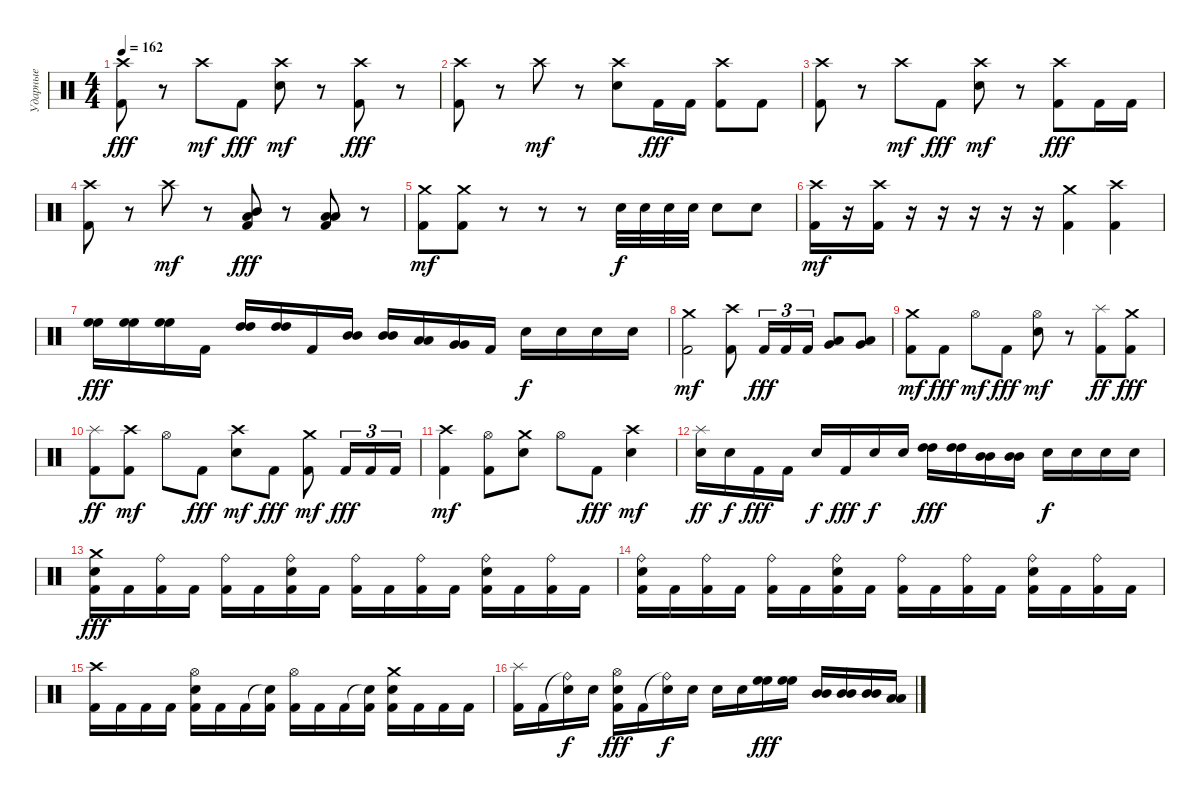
\track ("Ударные" "Ударные") {instrument percussion}
\staff {score}
\articulation defaults
\ts (4 4)
\tempo 162
\clef neutral
\ks c
("Crash high (hit)" "Kick (hit) 2").8{dy fff} r.8 "Crash high (hit)".8{dy mf} "Kick (hit) 2".8{dy fff} ("Crash high (hit)" "Electric Snare (hit)").8{dy mf} r.8 ("Crash high (hit)" "Kick (hit) 2").8{dy fff} r.8 |
("Crash high (hit)" "Kick (hit) 2").8 r.8 "Crash high (hit)".8{dy mf} r.8 ("Crash high (hit)" "Electric Snare (hit)").8 "Kick (hit) 2".16{dy fff} "Kick (hit) 2".16 ("Crash high (hit)" "Kick (hit) 2").8 "Kick (hit) 2".8 |
("Crash high (hit)" "Kick (hit) 2").8 r.8 "Crash high (hit)".8{dy mf} "Kick (hit) 2".8{dy fff} ("Crash high (hit)" "Electric Snare (hit)").8{dy mf} r.8 ("Crash high (hit)" "Kick (hit) 2").8{dy fff} "Kick (hit) 2".16 "Kick (hit) 2".16 |
("Crash high (hit)" "Kick (hit) 2").8 r.8 "Crash high (hit)".8{dy mf} r.8 ("Low Tom (hit)" "Mid Tom (hit)" "Kick (hit) 2").8{dy fff} r.8 ("Low Tom (hit)" "Low Tom (hit)" "Kick (hit) 2").8 r.8 |
("Kick (hit) 2" "Crash medium (hit)").8{dy mf} ("Kick (hit) 2" "Crash medium (hit)").8 r.8 r.8 r.8 "Electric Snare (hit)".32{dy f} "Electric Snare (hit)".32 "Electric Snare (hit)".32 "Electric Snare (hit)".32 "Electric Snare (hit)".8 "Electric Snare (hit)".8 |
("Kick (hit) 2" "Crash high (hit)").16{dy mf} r.16 ("Kick (hit) 2" "Crash high (hit)").16 r.16 r.16 r.16 r.16 r.16 ("Kick (hit) 2" "Crash medium (hit)").4 ("Kick (hit) 2" "Crash high (hit)").4 |
("High Floor Tom (hit)" "High Floor Tom (hit)").16{dy fff} ("High Floor Tom (hit)" "High Floor Tom (hit)").16 ("High Floor Tom (hit)" "High Floor Tom (hit)").16 "Kick (hit) 2".16 ("High Tom (hit)" "High Tom (hit)").16 ("High Tom (hit)" "High Tom (hit)").16 "Kick (hit) 2".16 ("Mid Tom (hit)" "Mid Tom (hit)").16 ("Mid Tom (hit)" "Mid Tom (hit)").16 ("Low Tom (hit)" "Low Tom (hit)").16 ("Very Low Tom (hit)" "Very Low Tom (hit)").16 "Kick (hit) 2".16 "Electric Snare (hit)".16{dy f} "Electric Snare (hit)".16 "Electric Snare (hit)".16 "Electric Snare (hit)".16 |
("Kick (hit) 2" "Crash medium (hit)").2{dy mf} ("Kick (hit) 2" "Crash high (hit)").8 "Kick (hit) 2".16{tu (3 2) dy fff} "Kick (hit) 2".16{tu (3 2)} "Kick (hit) 2".16{tu (3 2)} ("Very Low Tom (hit)" "Low Floor Tom (hit)").8 ("Very Low Tom (hit)" "Low Floor Tom (hit)").8 |
("Kick (hit) 2" "Crash medium (hit)").8{dy mf} "Kick (hit) 2".8{dy fff} "Hi-Hat (open)".8{dy mf} "Kick (hit) 2".8{dy fff} ("Electric Snare (hit)" "Hi-Hat (open)").8{dy mf} r.8 ("Kick (hit) 2" "Splash (hit)").8{dy ff} ("Kick (hit) 2" "Crash medium (hit)").8{dy fff} |
("Kick (hit) 2" "Splash (hit)").8{dy ff} ("Kick (hit) 2" "Crash high (hit)").8{dy mf} "Hi-Hat (open)".8 "Kick (hit) 2".8{dy fff} ("Electric Snare (hit)" "Crash high (hit)").8{dy mf} "Kick (hit) 2".8{dy fff} ("Kick (hit) 2" "Crash medium (hit)").8{dy mf} "Kick (hit) 2".16{tu (3 2) dy fff} "Kick (hit) 2".16{tu (3 2)} "Kick (hit) 2".16{tu (3 2)} |
("Kick (hit) 2" "Crash high (hit)").4{dy mf} ("Kick (hit) 2" "Hi-Hat (open)").8 ("Electric Snare (hit)" "Crash medium (hit)").8 "Hi-Hat (open)".8 "Kick (hit) 2".8{dy fff} ("Electric Snare (hit)" "Crash high (hit)").4{dy mf} |
("Splash (hit)" "Electric Snare (hit)").16{dy ff} "Electric Snare (hit)".16{dy f} "Kick (hit) 2".16{dy fff} "Kick (hit) 2".16 "Electric Snare (hit)".16{dy f} "Kick (hit) 2".16{dy fff} "Electric Snare (hit)".16{dy f} "Electric Snare (hit)".16 ("High Tom (hit)" "High Tom (hit)").16{dy fff} ("High Tom (hit)" "High Tom (hit)").16 ("Mid Tom (hit)" "Mid Tom (hit)").16 ("Mid Tom (hit)" "Mid Tom (hit)").16 "Electric Snare (hit)".16{dy f} "Electric Snare (hit)".16 "Electric Snare (hit)".16 "Electric Snare (hit)".16 |
("Crash medium (hit)" "Electric Snare (hit)" "Kick (hit) 2").16{dy fff} "Kick (hit) 2".16 ("Ride (bell)" "Kick (hit) 2").16 "Kick (hit) 2".16 ("Ride (bell)" "Kick (hit) 2").16 "Kick (hit) 2".16 ("Ride (bell)" "Electric Snare (hit)" "Kick (hit) 2").16 "Kick (hit) 2".16 ("Ride (bell)" "Kick (hit) 2").16 "Kick (hit) 2".16 ("Ride (bell)" "Kick (hit) 2").16 "Kick (hit) 2".16 ("Ride (bell)" "Electric Snare (hit)" "Kick (hit) 2").16 "Kick (hit) 2".16 ("Ride (bell)" "Kick (hit) 2").16 "Kick (hit) 2".16 |
("Ride (bell)" "Electric Snare (hit)" "Kick (hit) 2").16 "Kick (hit) 2".16 ("Ride (bell)" "Kick (hit) 2").16 "Kick (hit) 2".16 ("Ride (bell)" "Kick (hit) 2").16 "Kick (hit) 2".16 ("Ride (bell)" "Electric Snare (hit)" "Kick (hit) 2").16 "Kick (hit) 2".16 ("Ride (bell)" "Kick (hit) 2").16 "Kick (hit) 2".16 ("Ride (bell)" "Kick (hit) 2").16 "Kick (hit) 2".16 ("Ride (bell)" "Electric Snare (hit)" "Kick (hit) 2").16 "Kick (hit) 2".16 ("Ride (bell)" "Kick (hit) 2").16 "Kick (hit) 2".16 |
("Crash high (hit)" "Kick (hit) 2").16 "Kick (hit) 2".16 "Kick (hit) 2".16 "Kick (hit) 2".16 ("Electric Snare (hit)" "Hi-Hat (open)" "Kick (hit) 2").16 "Kick (hit) 2".16 "Kick (hit) 2".16 ("Snare (hit)"{t} "Kick (hit) 2").16 ("Hi-Hat (open)" "Kick (hit) 2").16 "Kick (hit) 2".16 "Kick (hit) 2".16 ("Snare (hit)"{t} "Kick (hit) 2").16 ("Crash medium (hit)" "Electric Snare (hit)" "Kick (hit) 2").16 "Kick (hit) 2".16 "Kick (hit) 2".16 "Kick (hit) 2".16 |
("Splash (hit)" "Kick (hit) 2").16 "Kick (hit) 2".16 ("Ride (bell)"{t} "Electric Snare (hit)").16{dy f} "Electric Snare (hit)".16 ("Hi-Hat (open)" "Electric Snare (hit)" "Kick (hit) 2").16{dy fff} "Kick (hit) 2".16 ("Ride (bell)"{t} "Electric Snare (hit)").16{dy f} "Electric Snare (hit)".16 "Electric Snare (hit)".16 "Electric Snare (hit)".16 ("High Floor Tom (hit)" "High Floor Tom (hit)").16{dy fff} ("High Floor Tom (hit)" "High Floor Tom (hit)").16 ("Mid Tom (hit)" "Mid Tom (hit)").16 ("Mid Tom (hit)" "Mid Tom (hit)").16 ("Mid Tom (hit)" "Mid Tom (hit)").16 ("Low Tom (hit)" "Low Tom (hit)").16
